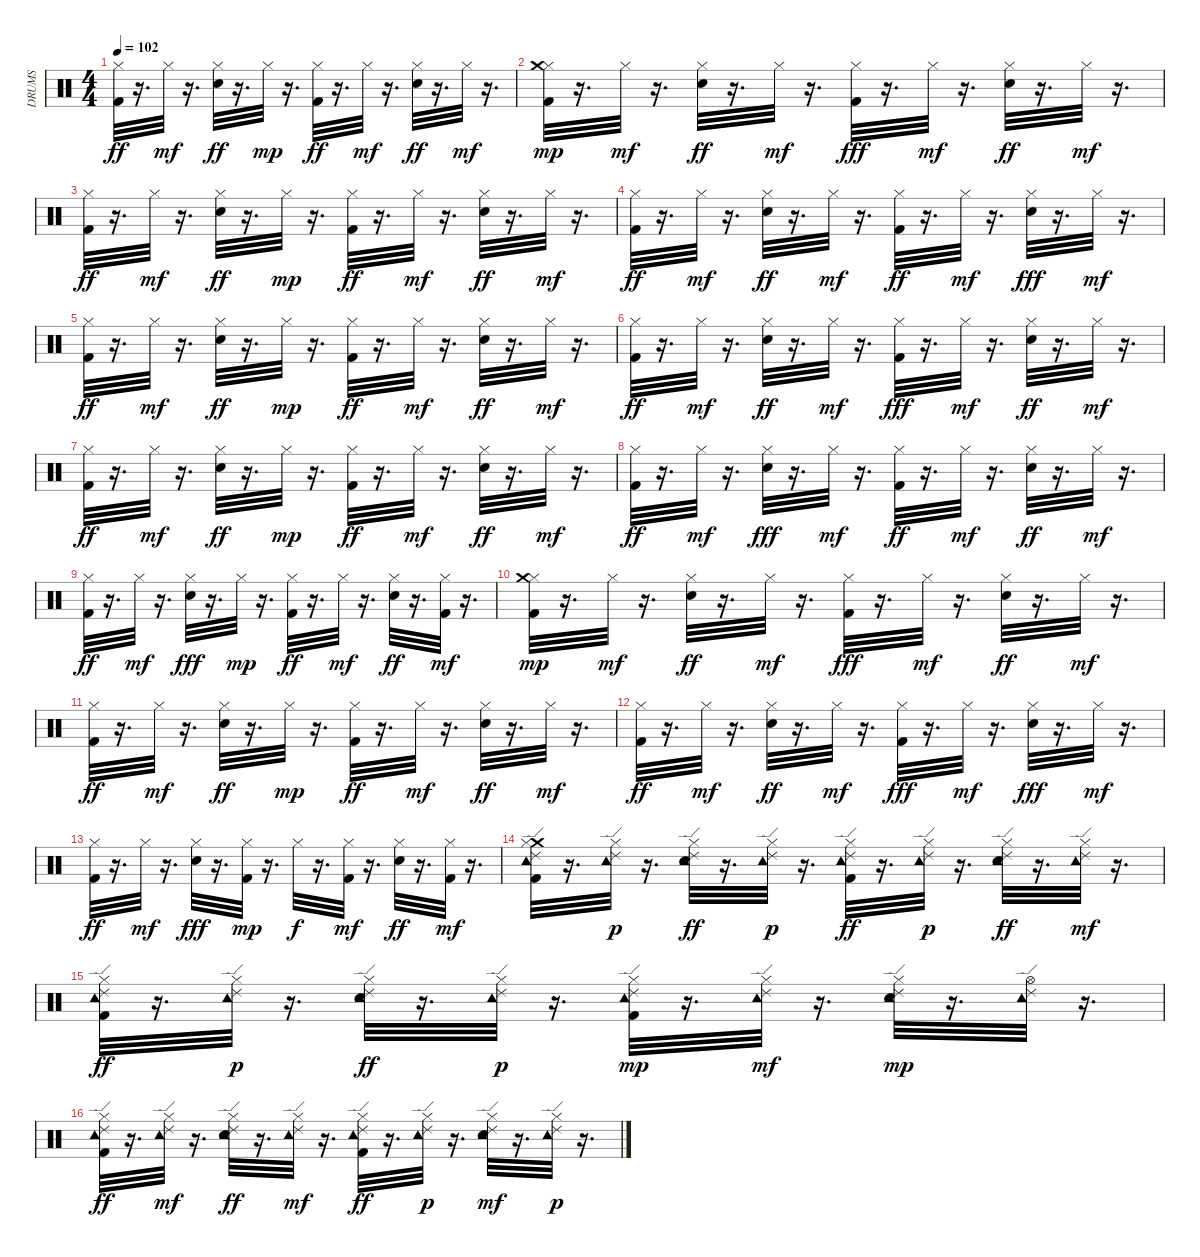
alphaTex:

\track ("DRUMS" "DRUMS") {instrument percussion}
\staff {score}
\articulation defaults
\ts (4 4)
\tempo 102
\clef neutral
\ks c
("Kick (hit) 2" "Hi-Hat (closed)").32{dy ff} r.16{d} "Hi-Hat (closed)".32{dy mf} r.16{d} ("Hi-Hat (closed)" "Electric Snare (hit)").32{dy ff} r.16{d} "Hi-Hat (closed)".32{dy mp} r.16{d} ("Kick (hit) 2" "Hi-Hat (closed)").32{dy ff} r.16{d} "Hi-Hat (closed)".32{dy mf} r.16{d} ("Electric Snare (hit)" "Hi-Hat (closed)").32{dy ff} r.16{d} "Hi-Hat (closed)".32{dy mf} r.16{d} |
("Hi-Hat (closed)" "Kick (hit) 2" "Crash medium (hit)").32{dy mp} r.16{d} "Hi-Hat (closed)".32{dy mf} r.16{d} ("Electric Snare (hit)" "Hi-Hat (closed)").32{dy ff} r.16{d} "Hi-Hat (closed)".32{dy mf} r.16{d} ("Hi-Hat (closed)" "Kick (hit) 2").32{dy fff} r.16{d} "Hi-Hat (closed)".32{dy mf} r.16{d} ("Hi-Hat (closed)" "Electric Snare (hit)").32{dy ff} r.16{d} "Hi-Hat (closed)".32{dy mf} r.16{d} |
("Hi-Hat (closed)" "Kick (hit) 2").32{dy ff} r.16{d} "Hi-Hat (closed)".32{dy mf} r.16{d} ("Hi-Hat (closed)" "Electric Snare (hit)").32{dy ff} r.16{d} "Hi-Hat (closed)".32{dy mp} r.16{d} ("Hi-Hat (closed)" "Kick (hit) 2").32{dy ff} r.16{d} "Hi-Hat (closed)".32{dy mf} r.16{d} ("Electric Snare (hit)" "Hi-Hat (closed)").32{dy ff} r.16{d} "Hi-Hat (closed)".32{dy mf} r.16{d} |
("Kick (hit) 2" "Hi-Hat (closed)").32{dy ff} r.16{d} "Hi-Hat (closed)".32{dy mf} r.16{d} ("Electric Snare (hit)" "Hi-Hat (closed)").32{dy ff} r.16{d} "Hi-Hat (closed)".32{dy mf} r.16{d} ("Kick (hit) 2" "Hi-Hat (closed)").32{dy ff} r.16{d} "Hi-Hat (closed)".32{dy mf} r.16{d} ("Hi-Hat (closed)" "Electric Snare (hit)").32{dy fff} r.16{d} "Hi-Hat (closed)".32{dy mf} r.16{d} |
("Kick (hit) 2" "Hi-Hat (closed)").32{dy ff} r.16{d} "Hi-Hat (closed)".32{dy mf} r.16{d} ("Electric Snare (hit)" "Hi-Hat (closed)").32{dy ff} r.16{d} "Hi-Hat (closed)".32{dy mp} r.16{d} ("Kick (hit) 2" "Hi-Hat (closed)").32{dy ff} r.16{d} "Hi-Hat (closed)".32{dy mf} r.16{d} ("Electric Snare (hit)" "Hi-Hat (closed)").32{dy ff} r.16{d} "Hi-Hat (closed)".32{dy mf} r.16{d} |
("Kick (hit) 2" "Hi-Hat (closed)").32{dy ff} r.16{d} "Hi-Hat (closed)".32{dy mf} r.16{d} ("Electric Snare (hit)" "Hi-Hat (closed)").32{dy ff} r.16{d} "Hi-Hat (closed)".32{dy mf} r.16{d} ("Hi-Hat (closed)" "Kick (hit) 2").32{dy fff} r.16{d} "Hi-Hat (closed)".32{dy mf} r.16{d} ("Electric Snare (hit)" "Hi-Hat (closed)").32{dy ff} r.16{d} "Hi-Hat (closed)".32{dy mf} r.16{d} |
("Kick (hit) 2" "Hi-Hat (closed)").32{dy ff} r.16{d} "Hi-Hat (closed)".32{dy mf} r.16{d} ("Hi-Hat (closed)" "Electric Snare (hit)").32{dy ff} r.16{d} "Hi-Hat (closed)".32{dy mp} r.16{d} ("Hi-Hat (closed)" "Kick (hit) 2").32{dy ff} r.16{d} "Hi-Hat (closed)".32{dy mf} r.16{d} ("Hi-Hat (closed)" "Electric Snare (hit)").32{dy ff} r.16{d} "Hi-Hat (closed)".32{dy mf} r.16{d} |
("Hi-Hat (closed)" "Kick (hit) 2").32{dy ff} r.16{d} "Hi-Hat (closed)".32{dy mf} r.16{d} ("Hi-Hat (closed)" "Electric Snare (hit)").32{dy fff} r.16{d} "Hi-Hat (closed)".32{dy mf} r.16{d} ("Kick (hit) 2" "Hi-Hat (closed)").32{dy ff} r.16{d} "Hi-Hat (closed)".32{dy mf} r.16{d} ("Electric Snare (hit)" "Hi-Hat (closed)").32{dy ff} r.16{d} "Hi-Hat (closed)".32{dy mf} r.16{d} |
("Kick (hit) 2" "Hi-Hat (closed)").32{dy ff} r.16{d} "Hi-Hat (closed)".32{dy mf} r.16{d} ("Electric Snare (hit)" "Hi-Hat (closed)").32{dy fff} r.16{d} "Hi-Hat (closed)".32{dy mp} r.16{d} ("Hi-Hat (closed)" "Kick (hit) 2").32{dy ff} r.16{d} "Hi-Hat (closed)".32{dy mf} r.16{d} ("Electric Snare (hit)" "Hi-Hat (closed)").32{dy ff} r.16{d} ("Kick (hit) 2" "Hi-Hat (closed)").32{dy mf} r.16{d} |
("Kick (hit) 2" "Hi-Hat (closed)" "Crash medium (hit)").32{dy mp} r.16{d} "Hi-Hat (closed)".32{dy mf} r.16{d} ("Electric Snare (hit)" "Hi-Hat (closed)").32{dy ff} r.16{d} "Hi-Hat (closed)".32{dy mf} r.16{d} ("Hi-Hat (closed)" "Kick (hit) 2").32{dy fff} r.16{d} "Hi-Hat (closed)".32{dy mf} r.16{d} ("Electric Snare (hit)" "Hi-Hat (closed)").32{dy ff} r.16{d} "Hi-Hat (closed)".32{dy mf} r.16{d} |
("Kick (hit) 2" "Hi-Hat (closed)").32{dy ff} r.16{d} "Hi-Hat (closed)".32{dy mf} r.16{d} ("Electric Snare (hit)" "Hi-Hat (closed)").32{dy ff} r.16{d} "Hi-Hat (closed)".32{dy mp} r.16{d} ("Kick (hit) 2" "Hi-Hat (closed)").32{dy ff} r.16{d} "Hi-Hat (closed)".32{dy mf} r.16{d} ("Hi-Hat (closed)" "Electric Snare (hit)").32{dy ff} r.16{d} "Hi-Hat (closed)".32{dy mf} r.16{d} |
("Hi-Hat (closed)" "Kick (hit) 2").32{dy ff} r.16{d} "Hi-Hat (closed)".32{dy mf} r.16{d} ("Hi-Hat (closed)" "Electric Snare (hit)").32{dy ff} r.16{d} "Hi-Hat (closed)".32{dy mf} r.16{d} ("Hi-Hat (closed)" "Kick (hit) 2").32{dy fff} r.16{d} "Hi-Hat (closed)".32{dy mf} r.16{d} ("Hi-Hat (closed)" "Electric Snare (hit)").32{dy fff} r.16{d} "Hi-Hat (closed)".32{dy mf} r.16{d} |
("Kick (hit) 2" "Hi-Hat (closed)").32{dy ff} r.16{d} "Hi-Hat (closed)".32{dy mf} r.16{d} ("Electric Snare (hit)" "Hi-Hat (closed)").32{dy fff} r.16{d} ("Kick (hit) 2" "Hi-Hat (closed)").32{dy mp} r.16{d} "Hi-Hat (closed)".32{dy f} r.16{d} ("Kick (hit) 2" "Hi-Hat (closed)").32{dy mf} r.16{d} ("Electric Snare (hit)" "Hi-Hat (closed)").32{dy ff} r.16{d} ("Kick (hit) 2" "Hi-Hat (closed)").32{dy mf} r.16{d} |
("Crash medium (hit)" "Hi-Hat (closed)" "Ride (edge) 2" "Kick (hit) 2" "Tambourine (hit)").32 r.16{d} ("Hi-Hat (closed)" "Tambourine (hit)" "Ride (edge) 2").32{dy p} r.16{d} ("Tambourine (hit)" "Electric Snare (hit)" "Ride (edge) 2" "Hi-Hat (closed)").32{dy ff} r.16{d} ("Hi-Hat (closed)" "Tambourine (hit)" "Ride (edge) 2").32{dy p} r.16{d} ("Tambourine (hit)" "Kick (hit) 2" "Ride (edge) 2" "Hi-Hat (closed)").32{dy ff} r.16{d} ("Hi-Hat (closed)" "Tambourine (hit)" "Ride (edge) 2").32{dy p} r.16{d} ("Tambourine (hit)" "Electric Snare (hit)" "Ride (edge) 2" "Hi-Hat (closed)").32{dy ff} r.16{d} ("Tambourine (hit)" "Hi-Hat (closed)" "Ride (edge) 2").32{dy mf} r.16{d} |
("Ride (edge) 2" "Tambourine (hit)" "Hi-Hat (closed)" "Kick (hit) 2").32{dy ff} r.16{d} ("Hi-Hat (closed)" "Ride (edge) 2" "Tambourine (hit)").32{dy p} r.16{d} ("Ride (edge) 2" "Tambourine (hit)" "Hi-Hat (closed)" "Electric Snare (hit)").32{dy ff} r.16{d} ("Hi-Hat (closed)" "Ride (edge) 2" "Tambourine (hit)").32{dy p} r.16{d} ("Hi-Hat (closed)" "Ride (edge) 2" "Kick (hit) 2" "Tambourine (hit)").32{dy mp} r.16{d} ("Tambourine (hit)" "Hi-Hat (closed)" "Ride (edge) 2").32{dy mf} r.16{d} ("Electric Snare (hit)" "Ride (edge) 2" "Tambourine (hit)" "Hi-Hat (closed)").32{dy mp} r.16{d} ("Tambourine (hit)" "Hi-Hat (open)" "Ride (edge) 2").32 r.16{d} |
("Kick (hit) 2" "Ride (edge) 2" "Tambourine (hit)" "Hi-Hat (closed)").32{dy ff} r.16{d} ("Tambourine (hit)" "Hi-Hat (closed)" "Ride (edge) 2").32{dy mf} r.16{d} ("Electric Snare (hit)" "Ride (edge) 2" "Tambourine (hit)" "Hi-Hat (closed)").32{dy ff} r.16{d} ("Tambourine (hit)" "Hi-Hat (closed)" "Ride (edge) 2").32{dy mf} r.16{d} ("Tambourine (hit)" "Kick (hit) 2" "Ride (edge) 2" "Hi-Hat (closed)").32{dy ff} r.16{d} ("Hi-Hat (closed)" "Ride (edge) 2" "Tambourine (hit)").32{dy p} r.16{d} ("Hi-Hat (closed)" "Ride (edge) 2" "Electric Snare (hit)" "Tambourine (hit)").32{dy mf} r.16{d} ("Hi-Hat (closed)" "Ride (edge) 2" "Tambourine (hit)").32{dy p} r.16{d}
